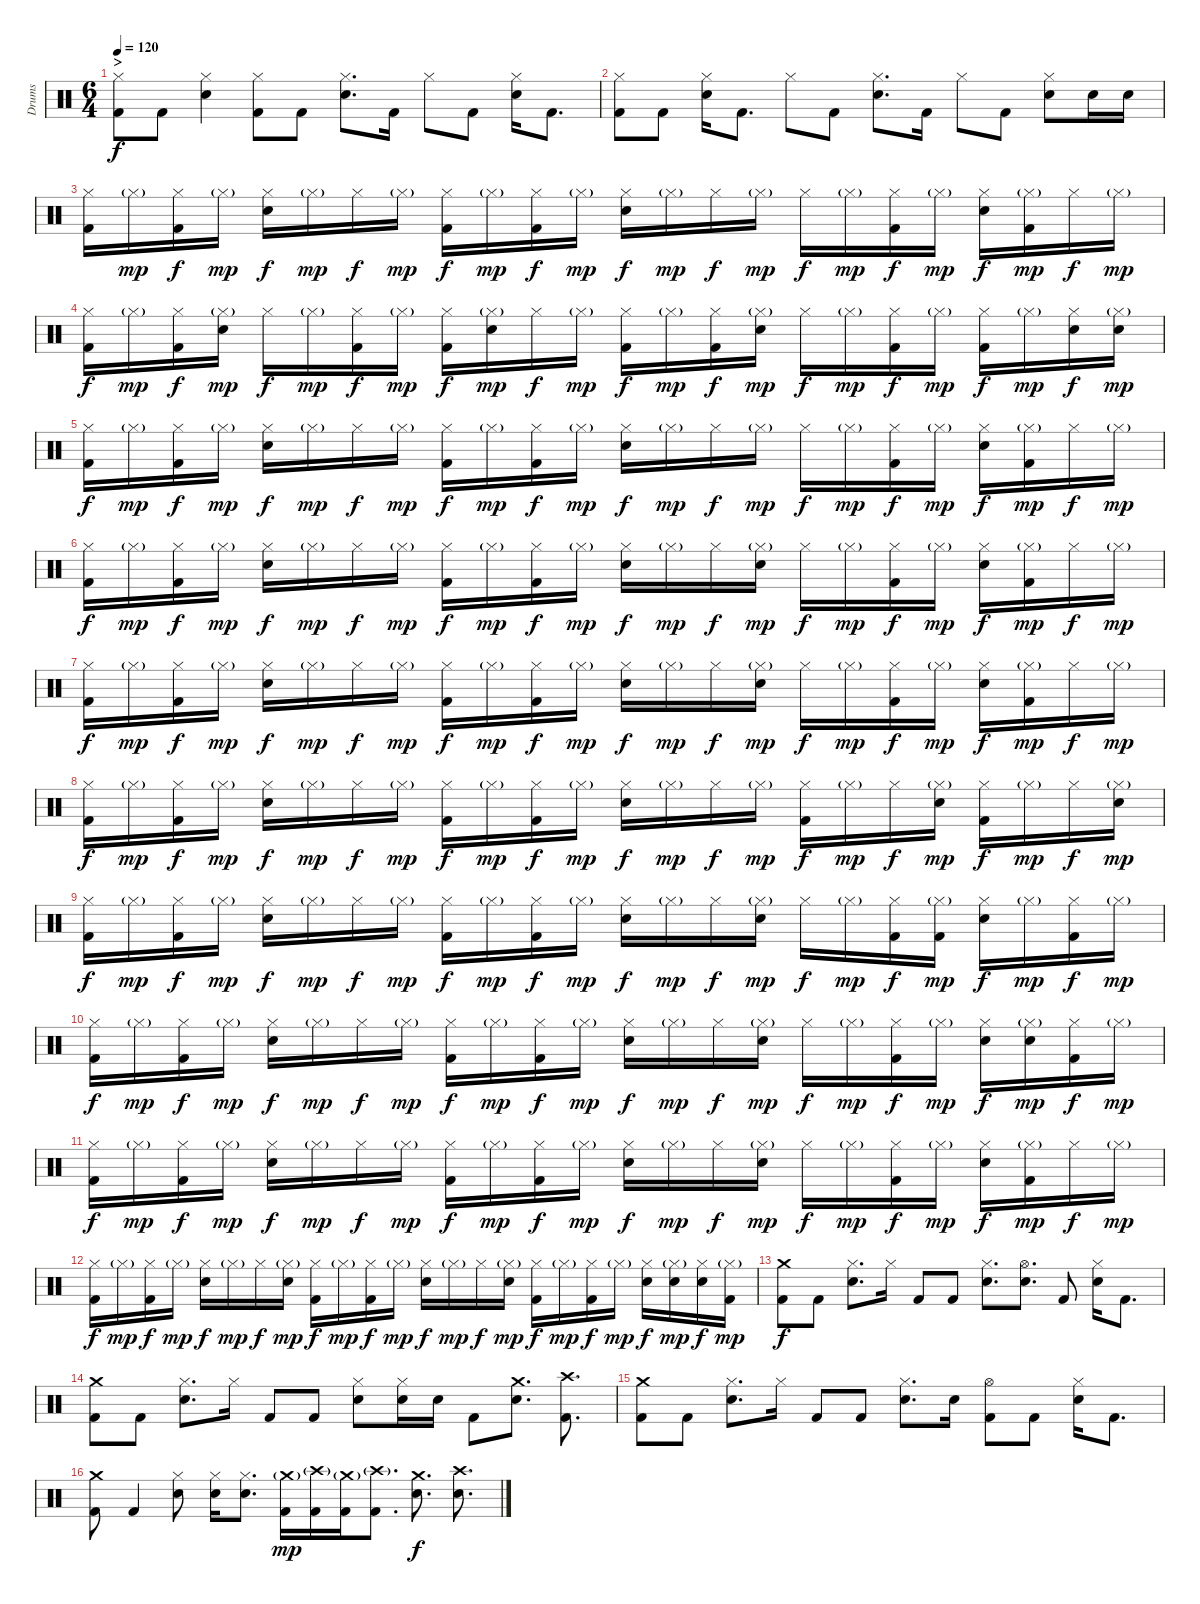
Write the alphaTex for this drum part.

\track ("Drums" "Drums") {instrument percussion}
\staff {score}
\articulation defaults
\ts (6 4)
\section ("" ">")
\tempo 128
\tempo 120
\clef neutral
\ks c
("Hi-Hat (closed)" "Kick (hit) 2").8{dy f} "Kick (hit) 2".8 ("Electric Snare (hit)" "Hi-Hat (closed)").4 ("Hi-Hat (closed)" "Kick (hit) 2").8 "Kick (hit) 2".8 ("Hi-Hat (closed)" "Electric Snare (hit)").8{d} "Kick (hit) 2".16 "Hi-Hat (closed)".8 "Kick (hit) 2".8 ("Hi-Hat (closed)" "Electric Snare (hit)").16 "Kick (hit) 2".8{d} |
("Hi-Hat (closed)" "Kick (hit) 2").8 "Kick (hit) 2".8 ("Electric Snare (hit)" "Hi-Hat (closed)").16 "Kick (hit) 2".8{d} "Hi-Hat (closed)".8 "Kick (hit) 2".8 ("Hi-Hat (closed)" "Electric Snare (hit)").8{d} "Kick (hit) 2".16 "Hi-Hat (closed)".8 "Kick (hit) 2".8 ("Hi-Hat (closed)" "Electric Snare (hit)").8 "Electric Snare (hit)".16 "Electric Snare (hit)".16 |
("Hi-Hat (closed)" "Kick (hit) 2").16 "Hi-Hat (closed)"{g}.16{dy mp} ("Hi-Hat (closed)" "Kick (hit) 2").16{dy f} "Hi-Hat (closed)"{g}.16{dy mp} ("Hi-Hat (closed)" "Electric Snare (hit)").16{dy f} "Hi-Hat (closed)"{g}.16{dy mp} "Hi-Hat (closed)".16{dy f} "Hi-Hat (closed)"{g}.16{dy mp} ("Hi-Hat (closed)" "Kick (hit) 2").16{dy f} "Hi-Hat (closed)"{g}.16{dy mp} ("Hi-Hat (closed)" "Kick (hit) 2").16{dy f} "Hi-Hat (closed)"{g}.16{dy mp} ("Hi-Hat (closed)" "Electric Snare (hit)").16{dy f} "Hi-Hat (closed)"{g}.16{dy mp} "Hi-Hat (closed)".16{dy f} "Hi-Hat (closed)"{g}.16{dy mp} "Hi-Hat (closed)".16{dy f} "Hi-Hat (closed)"{g}.16{dy mp} ("Hi-Hat (closed)" "Kick (hit) 2").16{dy f} "Hi-Hat (closed)"{g}.16{dy mp} ("Hi-Hat (closed)" "Electric Snare (hit)").16{dy f} ("Hi-Hat (closed)"{g} "Kick (hit) 2").16{dy mp} "Hi-Hat (closed)".16{dy f} "Hi-Hat (closed)"{g}.16{dy mp} |
("Hi-Hat (closed)" "Kick (hit) 2").16{dy f} "Hi-Hat (closed)"{g}.16{dy mp} ("Hi-Hat (closed)" "Kick (hit) 2").16{dy f} ("Hi-Hat (closed)"{g} "Electric Snare (hit)").16{dy mp} "Hi-Hat (closed)".16{dy f} "Hi-Hat (closed)"{g}.16{dy mp} ("Hi-Hat (closed)" "Kick (hit) 2").16{dy f} "Hi-Hat (closed)"{g}.16{dy mp} ("Hi-Hat (closed)" "Kick (hit) 2").16{dy f} ("Hi-Hat (closed)"{g} "Electric Snare (hit)").16{dy mp} "Hi-Hat (closed)".16{dy f} "Hi-Hat (closed)"{g}.16{dy mp} ("Hi-Hat (closed)" "Kick (hit) 2").16{dy f} "Hi-Hat (closed)"{g}.16{dy mp} ("Hi-Hat (closed)" "Kick (hit) 2").16{dy f} ("Hi-Hat (closed)"{g} "Electric Snare (hit)").16{dy mp} "Hi-Hat (closed)".16{dy f} "Hi-Hat (closed)"{g}.16{dy mp} ("Hi-Hat (closed)" "Kick (hit) 2").16{dy f} "Hi-Hat (closed)"{g}.16{dy mp} ("Hi-Hat (closed)" "Kick (hit) 2").16{dy f} "Hi-Hat (closed)"{g}.16{dy mp} ("Hi-Hat (closed)" "Electric Snare (hit)").16{dy f} ("Hi-Hat (closed)"{g} "Electric Snare (hit)").16{dy mp} |
("Hi-Hat (closed)" "Kick (hit) 2").16{dy f} "Hi-Hat (closed)"{g}.16{dy mp} ("Hi-Hat (closed)" "Kick (hit) 2").16{dy f} "Hi-Hat (closed)"{g}.16{dy mp} ("Hi-Hat (closed)" "Electric Snare (hit)").16{dy f} "Hi-Hat (closed)"{g}.16{dy mp} "Hi-Hat (closed)".16{dy f} "Hi-Hat (closed)"{g}.16{dy mp} ("Hi-Hat (closed)" "Kick (hit) 2").16{dy f} "Hi-Hat (closed)"{g}.16{dy mp} ("Hi-Hat (closed)" "Kick (hit) 2").16{dy f} "Hi-Hat (closed)"{g}.16{dy mp} ("Hi-Hat (closed)" "Electric Snare (hit)").16{dy f} "Hi-Hat (closed)"{g}.16{dy mp} "Hi-Hat (closed)".16{dy f} "Hi-Hat (closed)"{g}.16{dy mp} "Hi-Hat (closed)".16{dy f} "Hi-Hat (closed)"{g}.16{dy mp} ("Hi-Hat (closed)" "Kick (hit) 2").16{dy f} "Hi-Hat (closed)"{g}.16{dy mp} ("Hi-Hat (closed)" "Electric Snare (hit)").16{dy f} ("Hi-Hat (closed)"{g} "Kick (hit) 2").16{dy mp} "Hi-Hat (closed)".16{dy f} "Hi-Hat (closed)"{g}.16{dy mp} |
("Hi-Hat (closed)" "Kick (hit) 2").16{dy f} "Hi-Hat (closed)"{g}.16{dy mp} ("Hi-Hat (closed)" "Kick (hit) 2").16{dy f} "Hi-Hat (closed)"{g}.16{dy mp} ("Hi-Hat (closed)" "Electric Snare (hit)").16{dy f} "Hi-Hat (closed)"{g}.16{dy mp} "Hi-Hat (closed)".16{dy f} "Hi-Hat (closed)"{g}.16{dy mp} ("Hi-Hat (closed)" "Kick (hit) 2").16{dy f} "Hi-Hat (closed)"{g}.16{dy mp} ("Hi-Hat (closed)" "Kick (hit) 2").16{dy f} "Hi-Hat (closed)"{g}.16{dy mp} ("Hi-Hat (closed)" "Electric Snare (hit)").16{dy f} "Hi-Hat (closed)"{g}.16{dy mp} "Hi-Hat (closed)".16{dy f} ("Hi-Hat (closed)"{g} "Electric Snare (hit)").16{dy mp} "Hi-Hat (closed)".16{dy f} "Hi-Hat (closed)"{g}.16{dy mp} ("Hi-Hat (closed)" "Kick (hit) 2").16{dy f} "Hi-Hat (closed)"{g}.16{dy mp} ("Hi-Hat (closed)" "Electric Snare (hit)").16{dy f} ("Hi-Hat (closed)"{g} "Kick (hit) 2").16{dy mp} "Hi-Hat (closed)".16{dy f} "Hi-Hat (closed)"{g}.16{dy mp} |
("Hi-Hat (closed)" "Kick (hit) 2").16{dy f} "Hi-Hat (closed)"{g}.16{dy mp} ("Hi-Hat (closed)" "Kick (hit) 2").16{dy f} "Hi-Hat (closed)"{g}.16{dy mp} ("Hi-Hat (closed)" "Electric Snare (hit)").16{dy f} "Hi-Hat (closed)"{g}.16{dy mp} "Hi-Hat (closed)".16{dy f} "Hi-Hat (closed)"{g}.16{dy mp} ("Hi-Hat (closed)" "Kick (hit) 2").16{dy f} "Hi-Hat (closed)"{g}.16{dy mp} ("Hi-Hat (closed)" "Kick (hit) 2").16{dy f} "Hi-Hat (closed)"{g}.16{dy mp} ("Hi-Hat (closed)" "Electric Snare (hit)").16{dy f} "Hi-Hat (closed)"{g}.16{dy mp} "Hi-Hat (closed)".16{dy f} ("Hi-Hat (closed)"{g} "Electric Snare (hit)").16{dy mp} "Hi-Hat (closed)".16{dy f} "Hi-Hat (closed)"{g}.16{dy mp} ("Hi-Hat (closed)" "Kick (hit) 2").16{dy f} "Hi-Hat (closed)"{g}.16{dy mp} ("Hi-Hat (closed)" "Electric Snare (hit)").16{dy f} ("Hi-Hat (closed)"{g} "Kick (hit) 2").16{dy mp} "Hi-Hat (closed)".16{dy f} "Hi-Hat (closed)"{g}.16{dy mp} |
("Hi-Hat (closed)" "Kick (hit) 2").16{dy f} "Hi-Hat (closed)"{g}.16{dy mp} ("Hi-Hat (closed)" "Kick (hit) 2").16{dy f} "Hi-Hat (closed)"{g}.16{dy mp} ("Hi-Hat (closed)" "Electric Snare (hit)").16{dy f} "Hi-Hat (closed)"{g}.16{dy mp} "Hi-Hat (closed)".16{dy f} "Hi-Hat (closed)"{g}.16{dy mp} ("Hi-Hat (closed)" "Kick (hit) 2").16{dy f} "Hi-Hat (closed)"{g}.16{dy mp} ("Hi-Hat (closed)" "Kick (hit) 2").16{dy f} "Hi-Hat (closed)"{g}.16{dy mp} ("Hi-Hat (closed)" "Electric Snare (hit)").16{dy f} "Hi-Hat (closed)"{g}.16{dy mp} "Hi-Hat (closed)".16{dy f} "Hi-Hat (closed)"{g}.16{dy mp} ("Hi-Hat (closed)" "Kick (hit) 2").16{dy f} "Hi-Hat (closed)"{g}.16{dy mp} "Hi-Hat (closed)".16{dy f} ("Hi-Hat (closed)"{g} "Electric Snare (hit)").16{dy mp} ("Hi-Hat (closed)" "Kick (hit) 2").16{dy f} "Hi-Hat (closed)"{g}.16{dy mp} "Hi-Hat (closed)".16{dy f} ("Hi-Hat (closed)"{g} "Electric Snare (hit)").16{dy mp} |
("Hi-Hat (closed)" "Kick (hit) 2").16{dy f} "Hi-Hat (closed)"{g}.16{dy mp} ("Hi-Hat (closed)" "Kick (hit) 2").16{dy f} "Hi-Hat (closed)"{g}.16{dy mp} ("Hi-Hat (closed)" "Electric Snare (hit)").16{dy f} "Hi-Hat (closed)"{g}.16{dy mp} "Hi-Hat (closed)".16{dy f} "Hi-Hat (closed)"{g}.16{dy mp} ("Hi-Hat (closed)" "Kick (hit) 2").16{dy f} "Hi-Hat (closed)"{g}.16{dy mp} ("Hi-Hat (closed)" "Kick (hit) 2").16{dy f} "Hi-Hat (closed)"{g}.16{dy mp} ("Hi-Hat (closed)" "Electric Snare (hit)").16{dy f} "Hi-Hat (closed)"{g}.16{dy mp} "Hi-Hat (closed)".16{dy f} ("Hi-Hat (closed)"{g} "Electric Snare (hit)").16{dy mp} "Hi-Hat (closed)".16{dy f} "Hi-Hat (closed)"{g}.16{dy mp} ("Hi-Hat (closed)" "Kick (hit) 2").16{dy f} ("Hi-Hat (closed)"{g} "Kick (hit) 2").16{dy mp} ("Hi-Hat (closed)" "Electric Snare (hit)").16{dy f} "Hi-Hat (closed)"{g}.16{dy mp} ("Hi-Hat (closed)" "Kick (hit) 2").16{dy f} "Hi-Hat (closed)"{g}.16{dy mp} |
("Hi-Hat (closed)" "Kick (hit) 2").16{dy f} "Hi-Hat (closed)"{g}.16{dy mp} ("Hi-Hat (closed)" "Kick (hit) 2").16{dy f} "Hi-Hat (closed)"{g}.16{dy mp} ("Hi-Hat (closed)" "Electric Snare (hit)").16{dy f} "Hi-Hat (closed)"{g}.16{dy mp} "Hi-Hat (closed)".16{dy f} "Hi-Hat (closed)"{g}.16{dy mp} ("Hi-Hat (closed)" "Kick (hit) 2").16{dy f} "Hi-Hat (closed)"{g}.16{dy mp} ("Hi-Hat (closed)" "Kick (hit) 2").16{dy f} "Hi-Hat (closed)"{g}.16{dy mp} ("Hi-Hat (closed)" "Electric Snare (hit)").16{dy f} "Hi-Hat (closed)"{g}.16{dy mp} "Hi-Hat (closed)".16{dy f} ("Hi-Hat (closed)"{g} "Electric Snare (hit)").16{dy mp} "Hi-Hat (closed)".16{dy f} "Hi-Hat (closed)"{g}.16{dy mp} ("Hi-Hat (closed)" "Kick (hit) 2").16{dy f} "Hi-Hat (closed)"{g}.16{dy mp} ("Hi-Hat (closed)" "Electric Snare (hit)").16{dy f} ("Hi-Hat (closed)"{g} "Electric Snare (hit)").16{dy mp} ("Hi-Hat (closed)" "Kick (hit) 2").16{dy f} "Hi-Hat (closed)"{g}.16{dy mp} |
("Hi-Hat (closed)" "Kick (hit) 2").16{dy f} "Hi-Hat (closed)"{g}.16{dy mp} ("Hi-Hat (closed)" "Kick (hit) 2").16{dy f} "Hi-Hat (closed)"{g}.16{dy mp} ("Hi-Hat (closed)" "Electric Snare (hit)").16{dy f} "Hi-Hat (closed)"{g}.16{dy mp} "Hi-Hat (closed)".16{dy f} "Hi-Hat (closed)"{g}.16{dy mp} ("Hi-Hat (closed)" "Kick (hit) 2").16{dy f} "Hi-Hat (closed)"{g}.16{dy mp} ("Hi-Hat (closed)" "Kick (hit) 2").16{dy f} "Hi-Hat (closed)"{g}.16{dy mp} ("Hi-Hat (closed)" "Electric Snare (hit)").16{dy f} "Hi-Hat (closed)"{g}.16{dy mp} "Hi-Hat (closed)".16{dy f} ("Hi-Hat (closed)"{g} "Electric Snare (hit)").16{dy mp} "Hi-Hat (closed)".16{dy f} "Hi-Hat (closed)"{g}.16{dy mp} ("Hi-Hat (closed)" "Kick (hit) 2").16{dy f} "Hi-Hat (closed)"{g}.16{dy mp} ("Hi-Hat (closed)" "Electric Snare (hit)").16{dy f} ("Hi-Hat (closed)"{g} "Kick (hit) 2").16{dy mp} "Hi-Hat (closed)".16{dy f} "Hi-Hat (closed)"{g}.16{dy mp} |
("Hi-Hat (closed)" "Kick (hit) 2").16{dy f} "Hi-Hat (closed)"{g}.16{dy mp} ("Hi-Hat (closed)" "Kick (hit) 2").16{dy f} "Hi-Hat (closed)"{g}.16{dy mp} ("Hi-Hat (closed)" "Electric Snare (hit)").16{dy f} "Hi-Hat (closed)"{g}.16{dy mp} "Hi-Hat (closed)".16{dy f} ("Hi-Hat (closed)"{g} "Electric Snare (hit)").16{dy mp} ("Hi-Hat (closed)" "Kick (hit) 2").16{dy f} "Hi-Hat (closed)"{g}.16{dy mp} ("Hi-Hat (closed)" "Kick (hit) 2").16{dy f} "Hi-Hat (closed)"{g}.16{dy mp} ("Hi-Hat (closed)" "Electric Snare (hit)").16{dy f} "Hi-Hat (closed)"{g}.16{dy mp} "Hi-Hat (closed)".16{dy f} ("Hi-Hat (closed)"{g} "Electric Snare (hit)").16{dy mp} ("Hi-Hat (closed)" "Kick (hit) 2").16{dy f} "Hi-Hat (closed)"{g}.16{dy mp} ("Hi-Hat (closed)" "Kick (hit) 2").16{dy f} "Hi-Hat (closed)"{g}.16{dy mp} ("Hi-Hat (closed)" "Electric Snare (hit)").16{dy f} ("Hi-Hat (closed)"{g} "Electric Snare (hit)").16{dy mp} ("Hi-Hat (closed)" "Electric Snare (hit)").16{dy f} ("Hi-Hat (closed)"{g} "Kick (hit) 2").16{dy mp} |
("Crash medium (hit)" "Kick (hit) 2").8{dy f} "Kick (hit) 2".8 ("Hi-Hat (closed)" "Electric Snare (hit)").8{d} "Hi-Hat (closed)".16 "Kick (hit) 2".8 "Kick (hit) 2".8 ("Hi-Hat (closed)" "Electric Snare (hit)").8{d} ("Hi-Hat (open)" "Electric Snare (hit)").8{d} "Kick (hit) 2".8 ("Hi-Hat (closed)" "Electric Snare (hit)").16 "Kick (hit) 2".8{d} |
("Crash medium (hit)" "Kick (hit) 2").8 "Kick (hit) 2".8 ("Hi-Hat (closed)" "Electric Snare (hit)").8{d} "Hi-Hat (closed)".16 "Kick (hit) 2".8 "Kick (hit) 2".8 ("Hi-Hat (closed)" "Electric Snare (hit)").8 ("Hi-Hat (closed)" "Electric Snare (hit)").16 "Electric Snare (hit)".16 "Kick (hit) 2".8 ("Crash medium (hit)" "Electric Snare (hit)").8{d} ("Crash high (hit)" "Kick (hit) 2").8{d} |
("Crash medium (hit)" "Kick (hit) 2").8 "Kick (hit) 2".8 ("Hi-Hat (closed)" "Electric Snare (hit)").8{d} "Hi-Hat (closed)".16 "Kick (hit) 2".8 "Kick (hit) 2".8 ("Hi-Hat (closed)" "Electric Snare (hit)").8{d} "Electric Snare (hit)".16 ("Hi-Hat (open)" "Kick (hit) 2").8 "Kick (hit) 2".8 ("Hi-Hat (closed)" "Electric Snare (hit)").16 "Kick (hit) 2".8{d} |
("Crash medium (hit)" "Kick (hit) 2").8 "Kick (hit) 2".4 ("Hi-Hat (closed)" "Electric Snare (hit)").8 ("Hi-Hat (closed)" "Electric Snare (hit)").16 ("Hi-Hat (closed)" "Electric Snare (hit)").8{d} ("Crash medium (hit)"{g} "Kick (hit) 2").16{dy mp} ("Crash high (hit)"{g} "Kick (hit) 2").16 ("Crash medium (hit)"{g} "Kick (hit) 2").16 ("Crash high (hit)"{g} "Kick (hit) 2").8{d} ("Crash medium (hit)" "Electric Snare (hit)").8{d dy f} ("Crash high (hit)" "Electric Snare (hit)").8{d}
